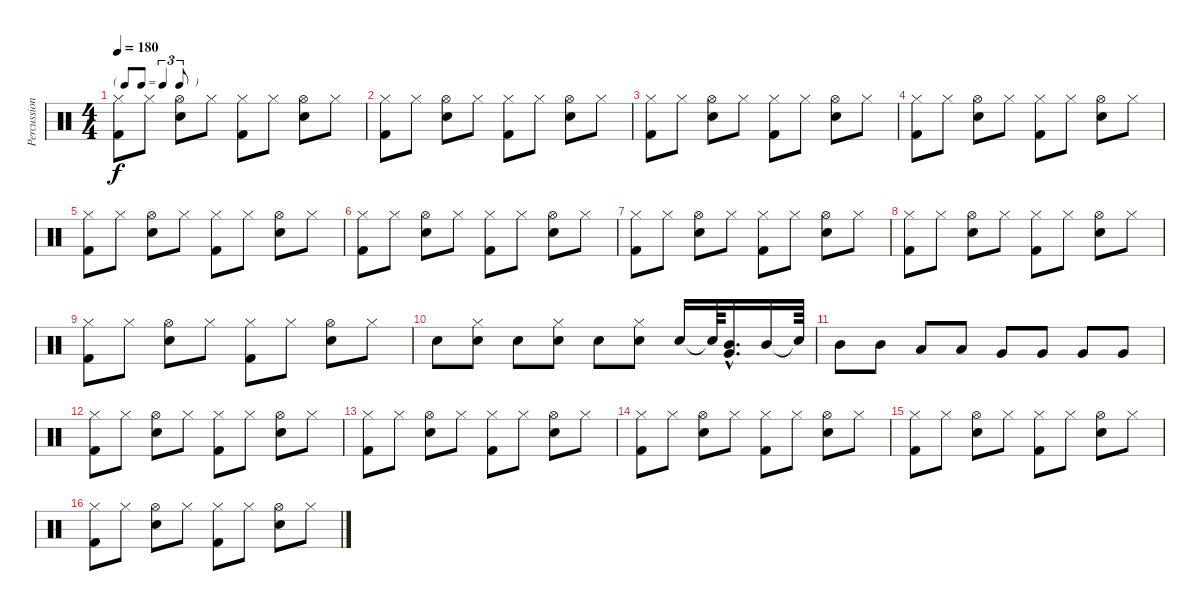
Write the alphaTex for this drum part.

\track ("Percussions" "Percussion") {instrument percussion}
\staff {score}
\articulation defaults
\ts (4 4)
\tf triplet8th
\tempo 180
\clef neutral
\ks c
("Hi-Hat (closed)" "Kick (hit) 2").8{dy f} "Hi-Hat (closed)".8 ("Hi-Hat (open)" "Snare (hit) 2").8 "Hi-Hat (closed)".8 ("Hi-Hat (closed)" "Kick (hit) 2").8 "Hi-Hat (closed)".8 ("Hi-Hat (open)" "Snare (hit) 2").8 "Hi-Hat (closed)".8 |
("Hi-Hat (closed)" "Kick (hit) 2").8 "Hi-Hat (closed)".8 ("Hi-Hat (open)" "Snare (hit) 2").8 "Hi-Hat (closed)".8 ("Hi-Hat (closed)" "Kick (hit) 2").8 "Hi-Hat (closed)".8 ("Hi-Hat (open)" "Snare (hit) 2").8 "Hi-Hat (closed)".8 |
("Hi-Hat (closed)" "Kick (hit) 2").8 "Hi-Hat (closed)".8 ("Hi-Hat (open)" "Snare (hit) 2").8 "Hi-Hat (closed)".8 ("Hi-Hat (closed)" "Kick (hit) 2").8 "Hi-Hat (closed)".8 ("Hi-Hat (open)" "Snare (hit) 2").8 "Hi-Hat (closed)".8 |
("Hi-Hat (closed)" "Kick (hit) 2").8 "Hi-Hat (closed)".8 ("Hi-Hat (open)" "Snare (hit) 2").8 "Hi-Hat (closed)".8 ("Hi-Hat (closed)" "Kick (hit) 2").8 "Hi-Hat (closed)".8 ("Hi-Hat (open)" "Snare (hit) 2").8 "Hi-Hat (closed)".8 |
("Hi-Hat (closed)" "Kick (hit) 2").8 "Hi-Hat (closed)".8 ("Hi-Hat (open)" "Snare (hit) 2").8 "Hi-Hat (closed)".8 ("Hi-Hat (closed)" "Kick (hit) 2").8 "Hi-Hat (closed)".8 ("Hi-Hat (open)" "Snare (hit) 2").8 "Hi-Hat (closed)".8 |
("Hi-Hat (closed)" "Kick (hit) 2").8 "Hi-Hat (closed)".8 ("Hi-Hat (open)" "Snare (hit) 2").8 "Hi-Hat (closed)".8 ("Hi-Hat (closed)" "Kick (hit) 2").8 "Hi-Hat (closed)".8 ("Hi-Hat (open)" "Snare (hit) 2").8 "Hi-Hat (closed)".8 |
("Hi-Hat (closed)" "Kick (hit) 2").8 "Hi-Hat (closed)".8 ("Hi-Hat (open)" "Snare (hit) 2").8 "Hi-Hat (closed)".8 ("Hi-Hat (closed)" "Kick (hit) 2").8 "Hi-Hat (closed)".8 ("Hi-Hat (open)" "Snare (hit) 2").8 "Hi-Hat (closed)".8 |
("Hi-Hat (closed)" "Kick (hit) 2").8 "Hi-Hat (closed)".8 ("Hi-Hat (open)" "Snare (hit) 2").8 "Hi-Hat (closed)".8 ("Hi-Hat (closed)" "Kick (hit) 2").8 "Hi-Hat (closed)".8 ("Hi-Hat (open)" "Snare (hit) 2").8 "Hi-Hat (closed)".8 |
("Hi-Hat (closed)" "Kick (hit) 2").8 "Hi-Hat (closed)".8 ("Hi-Hat (open)" "Snare (hit) 2").8 "Hi-Hat (closed)".8 ("Hi-Hat (closed)" "Kick (hit) 2").8 "Hi-Hat (closed)".8 ("Hi-Hat (open)" "Snare (hit) 2").8 "Hi-Hat (closed)".8 |
"Snare (hit) 2".8 ("Hi-Hat (closed)" "Snare (hit) 2").8 "Snare (hit) 2".8 ("Hi-Hat (closed)" "Snare (hit) 2").8 "Snare (hit) 2".8 ("Hi-Hat (closed)" "Snare (hit) 2").8 "Snare (hit) 2".16 "Snare (hit)"{t}.64 ("Mid Tom (hit)"{hac} "Very Low Tom (hit)"{hac}).16{d} "Mid Tom (hit)".16 "Snare (hit)"{t}.64 |
"Mid Tom (hit)".8 "Mid Tom (hit)".8 "Low Tom (hit)".8 "Low Tom (hit)".8 "Very Low Tom (hit)".8 "Very Low Tom (hit)".8 "Very Low Tom (hit)".8 "Very Low Tom (hit)".8 |
("Hi-Hat (closed)" "Kick (hit) 2").8 "Hi-Hat (closed)".8 ("Hi-Hat (open)" "Snare (hit) 2").8 "Hi-Hat (closed)".8 ("Hi-Hat (closed)" "Kick (hit) 2").8 "Hi-Hat (closed)".8 ("Hi-Hat (open)" "Snare (hit) 2").8 "Hi-Hat (closed)".8 |
("Hi-Hat (closed)" "Kick (hit) 2").8 "Hi-Hat (closed)".8 ("Hi-Hat (open)" "Snare (hit) 2").8 "Hi-Hat (closed)".8 ("Hi-Hat (closed)" "Kick (hit) 2").8 "Hi-Hat (closed)".8 ("Hi-Hat (open)" "Snare (hit) 2").8 "Hi-Hat (closed)".8 |
("Hi-Hat (closed)" "Kick (hit) 2").8 "Hi-Hat (closed)".8 ("Hi-Hat (open)" "Snare (hit) 2").8 "Hi-Hat (closed)".8 ("Hi-Hat (closed)" "Kick (hit) 2").8 "Hi-Hat (closed)".8 ("Hi-Hat (open)" "Snare (hit) 2").8 "Hi-Hat (closed)".8 |
("Hi-Hat (closed)" "Kick (hit) 2").8 "Hi-Hat (closed)".8 ("Hi-Hat (open)" "Snare (hit) 2").8 "Hi-Hat (closed)".8 ("Hi-Hat (closed)" "Kick (hit) 2").8 "Hi-Hat (closed)".8 ("Hi-Hat (open)" "Snare (hit) 2").8 "Hi-Hat (closed)".8 |
("Hi-Hat (closed)" "Kick (hit) 2").8 "Hi-Hat (closed)".8 ("Hi-Hat (open)" "Snare (hit) 2").8 "Hi-Hat (closed)".8 ("Hi-Hat (closed)" "Kick (hit) 2").8 "Hi-Hat (closed)".8 ("Hi-Hat (open)" "Snare (hit) 2").8 "Hi-Hat (closed)".8
